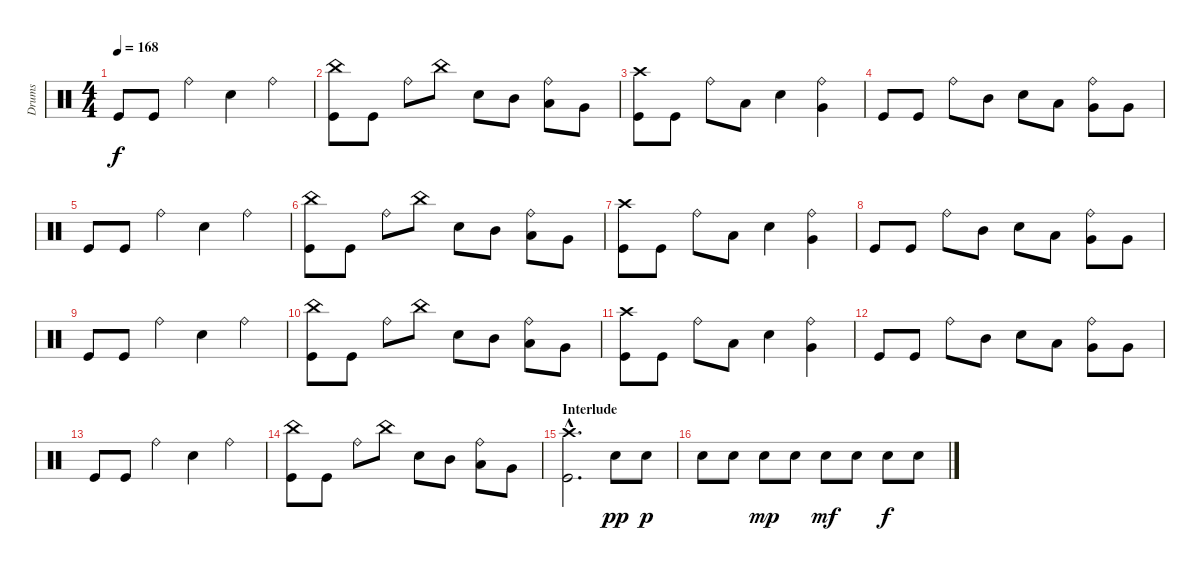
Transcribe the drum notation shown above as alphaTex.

\track ("Drums" "Drums") {instrument percussion}
\staff {score}
\articulation defaults
\ts (4 4)
\tempo 168
\clef neutral
\ks c "Kick (hit)".8{dy f} "Kick (hit)".8 "Ride (bell)".4 "Electric Snare (hit)".4 "Ride (bell)".4
|
("China (hit)" "Kick (hit)").8 "Kick (hit)".8 "Ride (bell)".8 "China (hit)".8 "Electric Snare (hit)".8 "Mid Tom (hit)".8 ("Ride (bell)" "Low Tom (hit)").8 "Very Low Tom (hit)".8 |
("Crash high (hit)" "Kick (hit)").8 "Kick (hit)".8 "Ride (bell)".8 "Low Tom (hit)".8 "Electric Snare (hit)".4 ("Ride (bell)" "Very Low Tom (hit)").4 |
"Kick (hit)".8 "Kick (hit)".8 "Ride (bell)".8 "Mid Tom (hit)".8 "Electric Snare (hit)".8 "Low Tom (hit)".8 ("Ride (bell)" "Very Low Tom (hit)").8 "Very Low Tom (hit)".8 |
"Kick (hit)".8 "Kick (hit)".8 "Ride (bell)".4 "Electric Snare (hit)".4 "Ride (bell)".4 |
("China (hit)" "Kick (hit)").8 "Kick (hit)".8 "Ride (bell)".8 "China (hit)".8 "Electric Snare (hit)".8 "Mid Tom (hit)".8 ("Ride (bell)" "Low Tom (hit)").8 "Very Low Tom (hit)".8 |
("Crash high (hit)" "Kick (hit)").8 "Kick (hit)".8 "Ride (bell)".8 "Low Tom (hit)".8 "Electric Snare (hit)".4 ("Ride (bell)" "Very Low Tom (hit)").4 |
"Kick (hit)".8 "Kick (hit)".8 "Ride (bell)".8 "Mid Tom (hit)".8 "Electric Snare (hit)".8 "Low Tom (hit)".8 ("Ride (bell)" "Very Low Tom (hit)").8 "Very Low Tom (hit)".8 |
"Kick (hit)".8 "Kick (hit)".8 "Ride (bell)".4 "Electric Snare (hit)".4 "Ride (bell)".4 |
("China (hit)" "Kick (hit)").8 "Kick (hit)".8 "Ride (bell)".8 "China (hit)".8 "Electric Snare (hit)".8 "Mid Tom (hit)".8 ("Ride (bell)" "Low Tom (hit)").8 "Very Low Tom (hit)".8 |
("Crash high (hit)" "Kick (hit)").8 "Kick (hit)".8 "Ride (bell)".8 "Low Tom (hit)".8 "Electric Snare (hit)".4 ("Ride (bell)" "Very Low Tom (hit)").4 |
"Kick (hit)".8 "Kick (hit)".8 "Ride (bell)".8 "Mid Tom (hit)".8 "Electric Snare (hit)".8 "Low Tom (hit)".8 ("Ride (bell)" "Very Low Tom (hit)").8 "Very Low Tom (hit)".8 |
"Kick (hit)".8 "Kick (hit)".8 "Ride (bell)".4 "Electric Snare (hit)".4 "Ride (bell)".4 |
("China (hit)" "Kick (hit)").8 "Kick (hit)".8 "Ride (bell)".8 "China (hit)".8 "Electric Snare (hit)".8 "Mid Tom (hit)".8 ("Ride (bell)" "Low Tom (hit)").8 "Very Low Tom (hit)".8 |
\section ("" "Interlude")
("Crash high (hit)"{hac} "Kick (hit)"{hac}).2{d} "Electric Snare (hit)".8{dy pp} "Electric Snare (hit)".8{dy p} |
"Electric Snare (hit)".8 "Electric Snare (hit)".8 "Electric Snare (hit)".8{dy mp} "Electric Snare (hit)".8 "Electric Snare (hit)".8{dy mf} "Electric Snare (hit)".8 "Electric Snare (hit)".8{dy f} "Electric Snare (hit)".8
